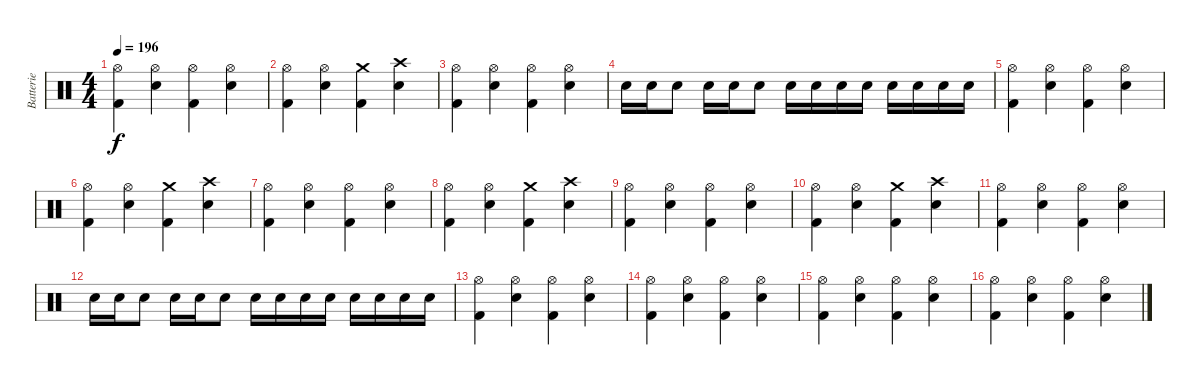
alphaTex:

\track ("Batterie" "Batterie") {instrument percussion}
\staff {score}
\articulation defaults
\ts (4 4)
\tempo 196
\clef neutral
\ks c
("Hi-Hat (open)" "Kick (hit) 2").4{dy f} ("Hi-Hat (open)" "Electric Snare (hit)").4 ("Hi-Hat (open)" "Kick (hit) 2").4 ("Hi-Hat (open)" "Electric Snare (hit)").4 |
("Hi-Hat (open)" "Kick (hit) 2").4 ("Hi-Hat (open)" "Electric Snare (hit)").4 ("Crash medium (hit)" "Kick (hit) 2").4 ("Crash high (hit)" "Electric Snare (hit)").4 |
("Hi-Hat (open)" "Kick (hit) 2").4 ("Hi-Hat (open)" "Electric Snare (hit)").4 ("Hi-Hat (open)" "Kick (hit) 2").4 ("Hi-Hat (open)" "Electric Snare (hit)").4 |
"Electric Snare (hit)".16 "Electric Snare (hit)".16 "Electric Snare (hit)".8 "Electric Snare (hit)".16 "Electric Snare (hit)".16 "Electric Snare (hit)".8 "Electric Snare (hit)".16 "Electric Snare (hit)".16 "Electric Snare (hit)".16 "Electric Snare (hit)".16 "Electric Snare (hit)".16 "Electric Snare (hit)".16 "Electric Snare (hit)".16 "Electric Snare (hit)".16 |
("Hi-Hat (open)" "Kick (hit) 2").4 ("Hi-Hat (open)" "Electric Snare (hit)").4 ("Hi-Hat (open)" "Kick (hit) 2").4 ("Hi-Hat (open)" "Electric Snare (hit)").4 |
("Hi-Hat (open)" "Kick (hit) 2").4 ("Hi-Hat (open)" "Electric Snare (hit)").4 ("Crash medium (hit)" "Kick (hit) 2").4 ("Crash high (hit)" "Electric Snare (hit)").4 |
("Hi-Hat (open)" "Kick (hit) 2").4 ("Hi-Hat (open)" "Electric Snare (hit)").4 ("Hi-Hat (open)" "Kick (hit) 2").4 ("Hi-Hat (open)" "Electric Snare (hit)").4 |
("Hi-Hat (open)" "Kick (hit) 2").4 ("Hi-Hat (open)" "Electric Snare (hit)").4 ("Crash medium (hit)" "Kick (hit) 2").4 ("Crash high (hit)" "Electric Snare (hit)").4 |
("Hi-Hat (open)" "Kick (hit) 2").4 ("Hi-Hat (open)" "Electric Snare (hit)").4 ("Hi-Hat (open)" "Kick (hit) 2").4 ("Hi-Hat (open)" "Electric Snare (hit)").4 |
("Hi-Hat (open)" "Kick (hit) 2").4 ("Hi-Hat (open)" "Electric Snare (hit)").4 ("Crash medium (hit)" "Kick (hit) 2").4 ("Crash high (hit)" "Electric Snare (hit)").4 |
("Hi-Hat (open)" "Kick (hit) 2").4 ("Hi-Hat (open)" "Electric Snare (hit)").4 ("Hi-Hat (open)" "Kick (hit) 2").4 ("Hi-Hat (open)" "Electric Snare (hit)").4 |
"Electric Snare (hit)".16 "Electric Snare (hit)".16 "Electric Snare (hit)".8 "Electric Snare (hit)".16 "Electric Snare (hit)".16 "Electric Snare (hit)".8 "Electric Snare (hit)".16 "Electric Snare (hit)".16 "Electric Snare (hit)".16 "Electric Snare (hit)".16 "Electric Snare (hit)".16 "Electric Snare (hit)".16 "Electric Snare (hit)".16 "Electric Snare (hit)".16 |
("Hi-Hat (open)" "Kick (hit) 2").4 ("Hi-Hat (open)" "Electric Snare (hit)").4 ("Hi-Hat (open)" "Kick (hit) 2").4 ("Hi-Hat (open)" "Electric Snare (hit)").4 |
("Hi-Hat (open)" "Kick (hit) 2").4 ("Hi-Hat (open)" "Electric Snare (hit)").4 ("Hi-Hat (open)" "Kick (hit) 2").4 ("Hi-Hat (open)" "Electric Snare (hit)").4 |
("Hi-Hat (open)" "Kick (hit) 2").4 ("Hi-Hat (open)" "Electric Snare (hit)").4 ("Hi-Hat (open)" "Kick (hit) 2").4 ("Hi-Hat (open)" "Electric Snare (hit)").4 |
("Hi-Hat (open)" "Kick (hit) 2").4 ("Hi-Hat (open)" "Electric Snare (hit)").4 ("Hi-Hat (open)" "Kick (hit) 2").4 ("Hi-Hat (open)" "Electric Snare (hit)").4
